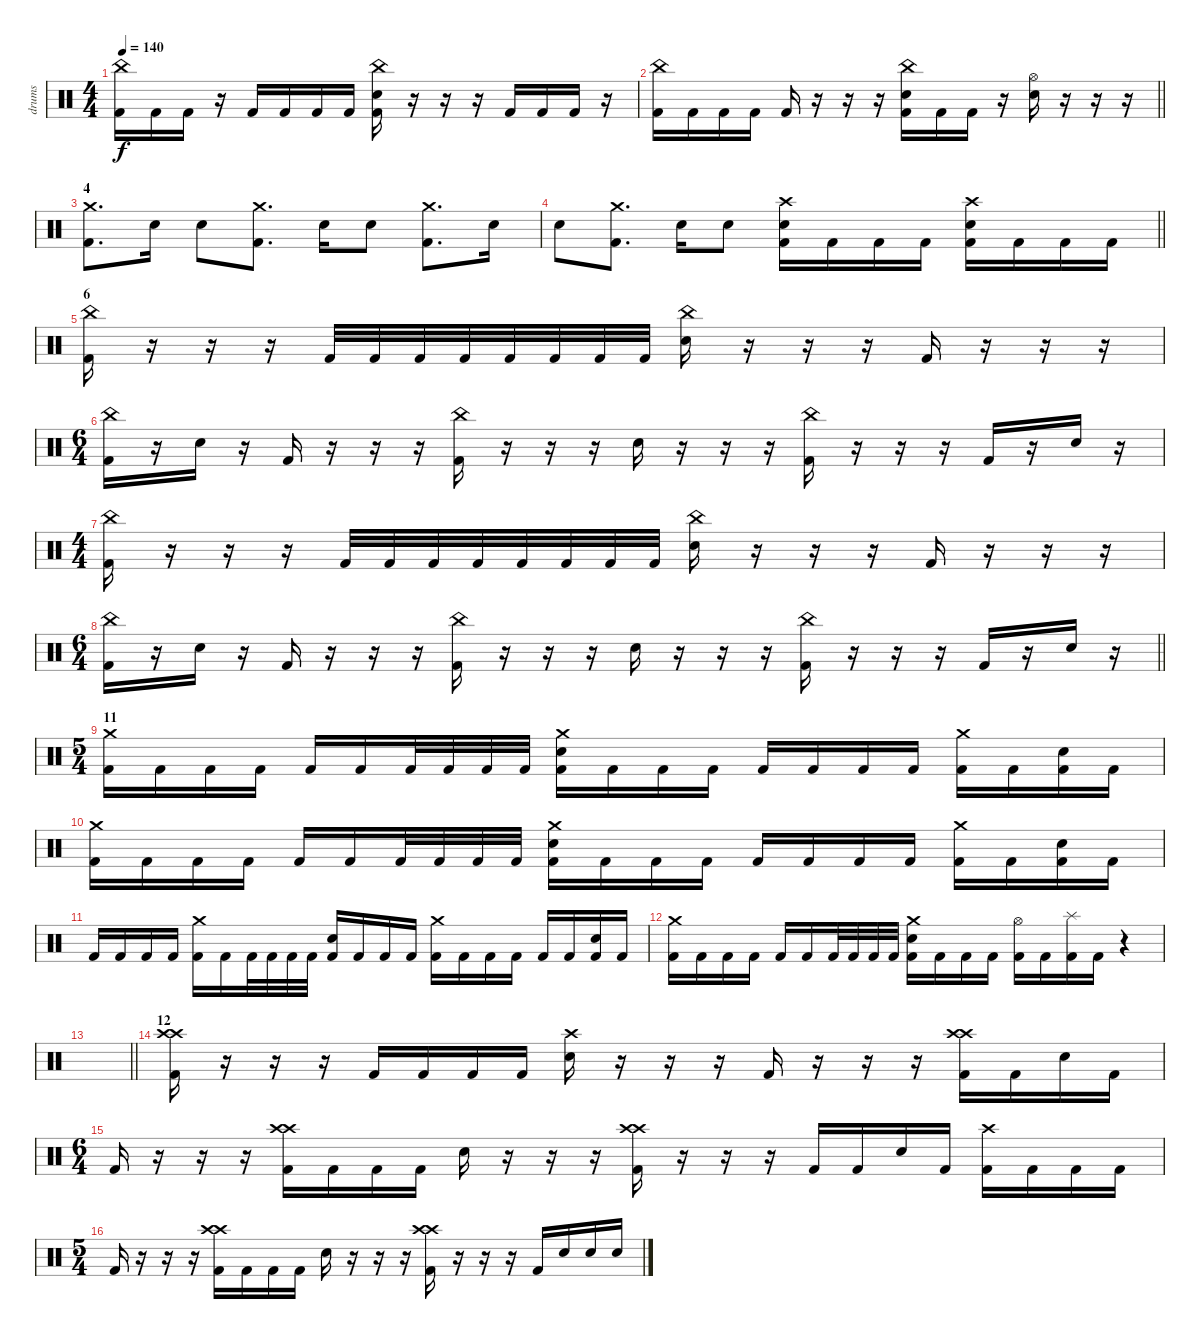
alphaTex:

\track ("drums" "drums") {instrument percussion}
\staff {score}
\articulation defaults
\ts (4 4)
\tempo 140
\clef neutral
\ks c
("China (hit)" "Kick (hit) 2").16{dy f} "Kick (hit) 2".16 "Kick (hit) 2".16 r.16 "Kick (hit) 2".16 "Kick (hit) 2".16 "Kick (hit) 2".16 "Kick (hit) 2".16 ("China (hit)" "Electric Snare (hit)" "Kick (hit) 2").16 r.16 r.16 r.16 "Kick (hit) 2".16 "Kick (hit) 2".16 "Kick (hit) 2".16 r.16 |
\barLineRight lightlight
("China (hit)" "Kick (hit) 2").16 "Kick (hit) 2".16 "Kick (hit) 2".16 "Kick (hit) 2".16 "Kick (hit) 2".16 r.16 r.16 r.16 ("China (hit)" "Electric Snare (hit)" "Kick (hit) 2").16 "Kick (hit) 2".16 "Kick (hit) 2".16 r.16 ("Hi-Hat (open)" "Electric Snare (hit)").16 r.16 r.16 r.16 |
\section ("" "4")
("Crash medium (hit)" "Kick (hit) 2").8{d} "Electric Snare (hit)".16 "Electric Snare (hit)".8 ("Crash medium (hit)" "Kick (hit) 2").8{d} "Electric Snare (hit)".16 "Electric Snare (hit)".8 ("Crash medium (hit)" "Kick (hit) 2").8{d} "Electric Snare (hit)".16 |
\barLineRight lightlight "Electric Snare (hit)".8
("Crash medium (hit)" "Kick (hit) 2").8{d} "Electric Snare (hit)".16 "Electric Snare (hit)".8 ("Crash high (hit)" "Electric Snare (hit)" "Kick (hit) 2").16 "Kick (hit) 2".16 "Kick (hit) 2".16 "Kick (hit) 2".16 ("Crash high (hit)" "Electric Snare (hit)" "Kick (hit) 2").16 "Kick (hit) 2".16 "Kick (hit) 2".16 "Kick (hit) 2".16 |
\section ("" "6")
("China (hit)" "Kick (hit) 2").16 r.16 r.16 r.16 "Kick (hit) 2".32 "Kick (hit) 2".32 "Kick (hit) 2".32 "Kick (hit) 2".32 "Kick (hit) 2".32 "Kick (hit) 2".32 "Kick (hit) 2".32 "Kick (hit) 2".32 ("China (hit)" "Electric Snare (hit)").16 r.16 r.16 r.16 "Kick (hit) 2".16 r.16 r.16 r.16 |
\ts (6 4)
("China (hit)" "Kick (hit) 2").16 r.16 "Electric Snare (hit)".16 r.16 "Kick (hit) 2".16 r.16 r.16 r.16 ("China (hit)" "Kick (hit) 2").16 r.16 r.16 r.16 "Electric Snare (hit)".16 r.16 r.16 r.16 ("China (hit)" "Kick (hit) 2").16 r.16 r.16 r.16 "Kick (hit) 2".16 r.16 "Electric Snare (hit)".16 r.16 |
\ts (4 4)
("China (hit)" "Kick (hit) 2").16 r.16 r.16 r.16 "Kick (hit) 2".32 "Kick (hit) 2".32 "Kick (hit) 2".32 "Kick (hit) 2".32 "Kick (hit) 2".32 "Kick (hit) 2".32 "Kick (hit) 2".32 "Kick (hit) 2".32 ("China (hit)" "Electric Snare (hit)").16 r.16 r.16 r.16 "Kick (hit) 2".16 r.16 r.16 r.16 |
\ts (6 4)
\barLineRight lightlight
("China (hit)" "Kick (hit) 2").16 r.16 "Electric Snare (hit)".16 r.16 "Kick (hit) 2".16 r.16 r.16 r.16 ("China (hit)" "Kick (hit) 2").16 r.16 r.16 r.16 "Electric Snare (hit)".16 r.16 r.16 r.16 ("China (hit)" "Kick (hit) 2").16 r.16 r.16 r.16 "Kick (hit) 2".16 r.16 "Electric Snare (hit)".16 r.16 |
\ts (5 4)
\section ("" "11")
("Crash medium (hit)" "Kick (hit) 2").16 "Kick (hit) 2".16 "Kick (hit) 2".16 "Kick (hit) 2".16 "Kick (hit) 2".16 "Kick (hit) 2".16 "Kick (hit) 2".32 "Kick (hit) 2".32 "Kick (hit) 2".32 "Kick (hit) 2".32 ("Crash medium (hit)" "Electric Snare (hit)" "Kick (hit) 2").16 "Kick (hit) 2".16 "Kick (hit) 2".16 "Kick (hit) 2".16 "Kick (hit) 2".16 "Kick (hit) 2".16 "Kick (hit) 2".16 "Kick (hit) 2".16 ("Crash medium (hit)" "Kick (hit) 2").16 "Kick (hit) 2".16 ("Electric Snare (hit)" "Kick (hit) 2").16 "Kick (hit) 2".16 |
("Crash medium (hit)" "Kick (hit) 2").16 "Kick (hit) 2".16 "Kick (hit) 2".16 "Kick (hit) 2".16 "Kick (hit) 2".16 "Kick (hit) 2".16 "Kick (hit) 2".32 "Kick (hit) 2".32 "Kick (hit) 2".32 "Kick (hit) 2".32 ("Crash medium (hit)" "Electric Snare (hit)" "Kick (hit) 2").16 "Kick (hit) 2".16 "Kick (hit) 2".16 "Kick (hit) 2".16 "Kick (hit) 2".16 "Kick (hit) 2".16 "Kick (hit) 2".16 "Kick (hit) 2".16 ("Crash medium (hit)" "Kick (hit) 2").16 "Kick (hit) 2".16 ("Electric Snare (hit)" "Kick (hit) 2").16 "Kick (hit) 2".16 |
"Kick (hit) 2".16 "Kick (hit) 2".16 "Kick (hit) 2".16 "Kick (hit) 2".16 ("Crash medium (hit)" "Kick (hit) 2").16 "Kick (hit) 2".16 "Kick (hit) 2".32 "Kick (hit) 2".32 "Kick (hit) 2".32 "Kick (hit) 2".32 ("Electric Snare (hit)" "Kick (hit) 2").16 "Kick (hit) 2".16 "Kick (hit) 2".16 "Kick (hit) 2".16 ("Crash medium (hit)" "Kick (hit) 2").16 "Kick (hit) 2".16 "Kick (hit) 2".16 "Kick (hit) 2".16 "Kick (hit) 2".16 "Kick (hit) 2".16 ("Electric Snare (hit)" "Kick (hit) 2").16 "Kick (hit) 2".16 |
("Crash medium (hit)" "Kick (hit) 2").16 "Kick (hit) 2".16 "Kick (hit) 2".16 "Kick (hit) 2".16 "Kick (hit) 2".16 "Kick (hit) 2".16 "Kick (hit) 2".32 "Kick (hit) 2".32 "Kick (hit) 2".32 "Kick (hit) 2".32 ("Crash medium (hit)" "Electric Snare (hit)" "Kick (hit) 2").16 "Kick (hit) 2".16 "Kick (hit) 2".16 "Kick (hit) 2".16 ("Hi-Hat (open)" "Kick (hit) 2").16 "Kick (hit) 2".16 ("Splash (hit)" "Kick (hit) 2").16 "Kick (hit) 2".16 r.4 |
\barLineRight lightlight
|
\section ("" "12")
("Crash high (hit)" "Crash high (hit)" "Kick (hit) 2").16 r.16 r.16 r.16 "Kick (hit) 2".16 "Kick (hit) 2".16 "Kick (hit) 2".16 "Kick (hit) 2".16 ("Crash high (hit)" "Electric Snare (hit)").16 r.16 r.16 r.16 "Kick (hit) 2".16 r.16 r.16 r.16 ("Crash high (hit)" "Crash high (hit)" "Kick (hit) 2").16 "Kick (hit) 2".16 "Electric Snare (hit)".16 "Kick (hit) 2".16 |
\ts (6 4)
"Kick (hit) 2".16 r.16 r.16 r.16 ("Crash high (hit)" "Crash high (hit)" "Kick (hit) 2").16 "Kick (hit) 2".16 "Kick (hit) 2".16 "Kick (hit) 2".16 "Electric Snare (hit)".16 r.16 r.16 r.16 ("Crash high (hit)" "Crash high (hit)" "Kick (hit) 2").16 r.16 r.16 r.16 "Kick (hit) 2".16 "Kick (hit) 2".16 "Electric Snare (hit)".16 "Kick (hit) 2".16 ("Crash high (hit)" "Kick (hit) 2").16 "Kick (hit) 2".16 "Kick (hit) 2".16 "Kick (hit) 2".16 |
\ts (5 4)
"Kick (hit) 2".16 r.16 r.16 r.16 ("Crash high (hit)" "Crash high (hit)" "Kick (hit) 2").16 "Kick (hit) 2".16 "Kick (hit) 2".16 "Kick (hit) 2".16 "Electric Snare (hit)".16 r.16 r.16 r.16 ("Crash high (hit)" "Crash high (hit)" "Kick (hit) 2").16 r.16 r.16 r.16 "Kick (hit) 2".16 "Electric Snare (hit)".16 "Electric Snare (hit)".16 "Electric Snare (hit)".16
